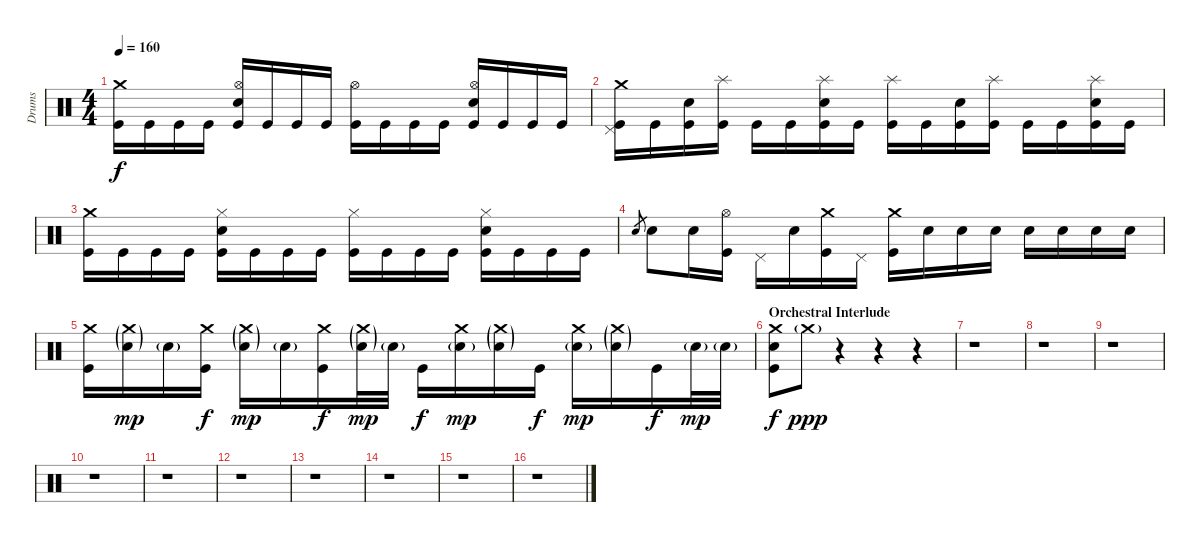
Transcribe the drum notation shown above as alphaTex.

\track ("Drums" "Drums") {instrument percussion}
\staff {score}
\articulation defaults
\ts (4 4)
\tempo 160
\clef neutral
\ks c
("Crash medium (hit)" "Kick (hit)").16{dy f} "Kick (hit)".16 "Kick (hit)".16 "Kick (hit)".16 ("Hi-Hat (open)" "Electric Snare (hit)" "Kick (hit)").16 "Kick (hit)".16 "Kick (hit)".16 "Kick (hit)".16 ("Hi-Hat (open)" "Kick (hit)").16 "Kick (hit)".16 "Kick (hit)".16 "Kick (hit)".16 ("Hi-Hat (open)" "Electric Snare (hit)" "Kick (hit)").16 "Kick (hit)".16 "Kick (hit)".16 "Kick (hit)".16 |
("Crash medium (hit)" "Pedal Hi-Hat (hit)" "Kick (hit)").16 "Kick (hit)".16 ("Electric Snare (hit)" "Kick (hit)").16 ("Splash (hit)" "Kick (hit)").16 "Kick (hit)".16 "Kick (hit)".16 ("Splash (hit)" "Electric Snare (hit)" "Kick (hit)").16 "Kick (hit)".16 ("Splash (hit)" "Kick (hit)").16 "Kick (hit)".16 ("Electric Snare (hit)" "Kick (hit)").16 ("Splash (hit)" "Kick (hit)").16 "Kick (hit)".16 "Kick (hit)".16 ("Splash (hit)" "Electric Snare (hit)" "Kick (hit)").16 "Kick (hit)".16 |
("Crash medium (hit)" "Kick (hit)").16 "Kick (hit)".16 "Kick (hit)".16 "Kick (hit)".16 ("Hi-Hat (closed)" "Electric Snare (hit)" "Kick (hit)").16 "Kick (hit)".16 "Kick (hit)".16 "Kick (hit)".16 ("Hi-Hat (closed)" "Kick (hit)").16 "Kick (hit)".16 "Kick (hit)".16 "Kick (hit)".16 ("Hi-Hat (closed)" "Electric Snare (hit)" "Kick (hit)").16 "Kick (hit)".16 "Kick (hit)".16 "Kick (hit)".16 |
"Electric Snare (hit)".8{gr} "Electric Snare (hit)".8 "Electric Snare (hit)".16 ("Hi-Hat (open)" "Kick (hit)").16 "Pedal Hi-Hat (hit)".16 "Electric Snare (hit)".16 ("Crash medium (hit)" "Kick (hit)").16 "Pedal Hi-Hat (hit)".16 ("Crash medium (hit)" "Kick (hit)").16 "Electric Snare (hit)".16 "Electric Snare (hit)".16 "Electric Snare (hit)".16 "Electric Snare (hit)".16 "Electric Snare (hit)".16 "Electric Snare (hit)".16 "Electric Snare (hit)".16 |
("Crash medium (hit)" "Kick (hit)").16 ("Crash medium (hit)"{g} "Electric Snare (hit)"{g}).16{dy mp} "Electric Snare (hit)"{g}.16 ("Crash medium (hit)" "Kick (hit)").16{dy f} ("Crash medium (hit)"{g} "Electric Snare (hit)"{g}).16{dy mp} "Electric Snare (hit)"{g}.16 ("Crash medium (hit)" "Kick (hit)").16{dy f} ("Crash medium (hit)"{g} "Electric Snare (hit)"{g}).32{dy mp} "Electric Snare (hit)"{g}.32 "Kick (hit)".16{dy f} ("Crash medium (hit)" "Electric Snare (hit)"{g}).16{dy mp} ("Crash medium (hit)"{g} "Electric Snare (hit)"{g}).16 "Kick (hit)".16{dy f} ("Crash medium (hit)" "Electric Snare (hit)"{g}).16{dy mp} ("Crash medium (hit)"{g} "Electric Snare (hit)"{g}).16 "Kick (hit)".16{dy f} "Electric Snare (hit)"{g}.32{dy mp} "Electric Snare (hit)"{g}.32 |
\section ("" "Orchestral Interlude")
("Crash medium (hit)" "Electric Snare (hit)" "Kick (hit)").8{dy f} "Crash medium (hit)"{g}.8{dy ppp} r.4 r.4 r.4 |
r.1 |
r.1 |
r.1 |
r.1 |
r.1 |
r.1 |
r.1 |
r.1 |
r.1 |
r.1
